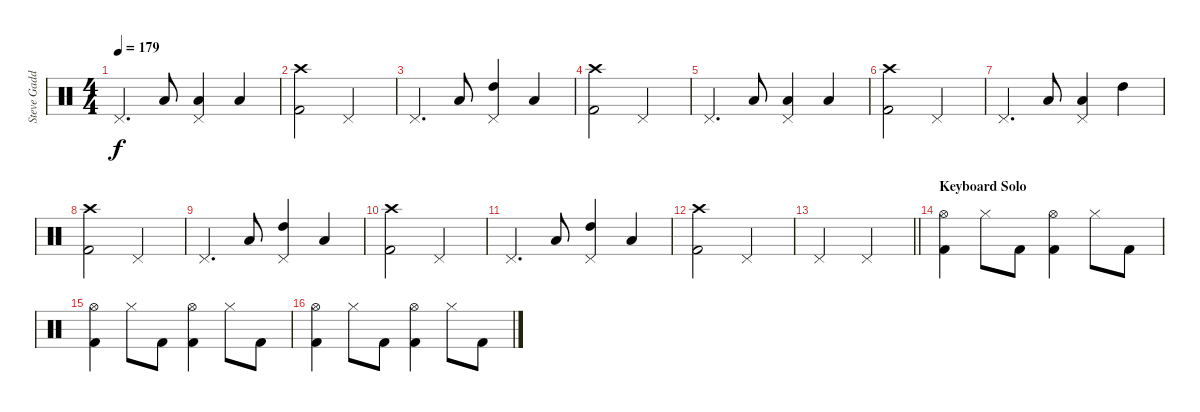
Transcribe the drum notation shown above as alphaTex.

\track ("Steve Gadd" "Steve Gadd") {instrument percussion}
\staff {score}
\articulation defaults
\ts (4 4)
\tempo 179
\clef neutral
\ks c "Pedal Hi-Hat (hit)".4{d dy f} "Low Tom (hit)".8
("Pedal Hi-Hat (hit)" "Low Tom (hit)").4 "Low Tom (hit)".4 |
("Crash high (hit)" "Kick (hit) 2").2 "Pedal Hi-Hat (hit)".2 |
"Pedal Hi-Hat (hit)".4{d} "Low Tom (hit)".8 ("Pedal Hi-Hat (hit)" "High Tom (hit)").4 "Low Floor Tom (hit)".4 |
("Crash high (hit)" "Kick (hit) 2").2 "Pedal Hi-Hat (hit)".2 |
"Pedal Hi-Hat (hit)".4{d} "Low Floor Tom (hit)".8 ("Pedal Hi-Hat (hit)" "Low Floor Tom (hit)").4 "Low Floor Tom (hit)".4 |
("Crash high (hit)" "Kick (hit) 2").2 "Pedal Hi-Hat (hit)".2 |
"Pedal Hi-Hat (hit)".4{d} "Low Tom (hit)".8 ("Pedal Hi-Hat (hit)" "Low Tom (hit)").4 "High Tom (hit)".4 |
("Crash high (hit)" "Kick (hit) 2").2 "Pedal Hi-Hat (hit)".2 |
"Pedal Hi-Hat (hit)".4{d} "Low Tom (hit)".8 ("Pedal Hi-Hat (hit)" "High Tom (hit)").4 "Low Floor Tom (hit)".4 |
("Crash high (hit)" "Kick (hit) 2").2 "Pedal Hi-Hat (hit)".2 |
"Pedal Hi-Hat (hit)".4{d} "Low Tom (hit)".8 ("Pedal Hi-Hat (hit)" "High Tom (hit)").4 "Low Floor Tom (hit)".4 |
("Crash high (hit)" "Kick (hit) 2").2 "Pedal Hi-Hat (hit)".2 |
\barLineRight lightlight "Pedal Hi-Hat (hit)".2 "Pedal Hi-Hat (hit)".2
|
\section ("" "Keyboard Solo")
("Hi-Hat (open)" "Kick (hit) 2").4 "Hi-Hat (closed)".8 "Kick (hit) 2".8 ("Hi-Hat (open)" "Kick (hit) 2").4 "Hi-Hat (closed)".8 "Kick (hit) 2".8 |
("Hi-Hat (open)" "Kick (hit) 2").4 "Hi-Hat (closed)".8 "Kick (hit) 2".8 ("Hi-Hat (open)" "Kick (hit) 2").4 "Hi-Hat (closed)".8 "Kick (hit) 2".8 |
("Hi-Hat (open)" "Kick (hit) 2").4 "Hi-Hat (closed)".8 "Kick (hit) 2".8 ("Hi-Hat (open)" "Kick (hit) 2").4 "Hi-Hat (closed)".8 "Kick (hit) 2".8
